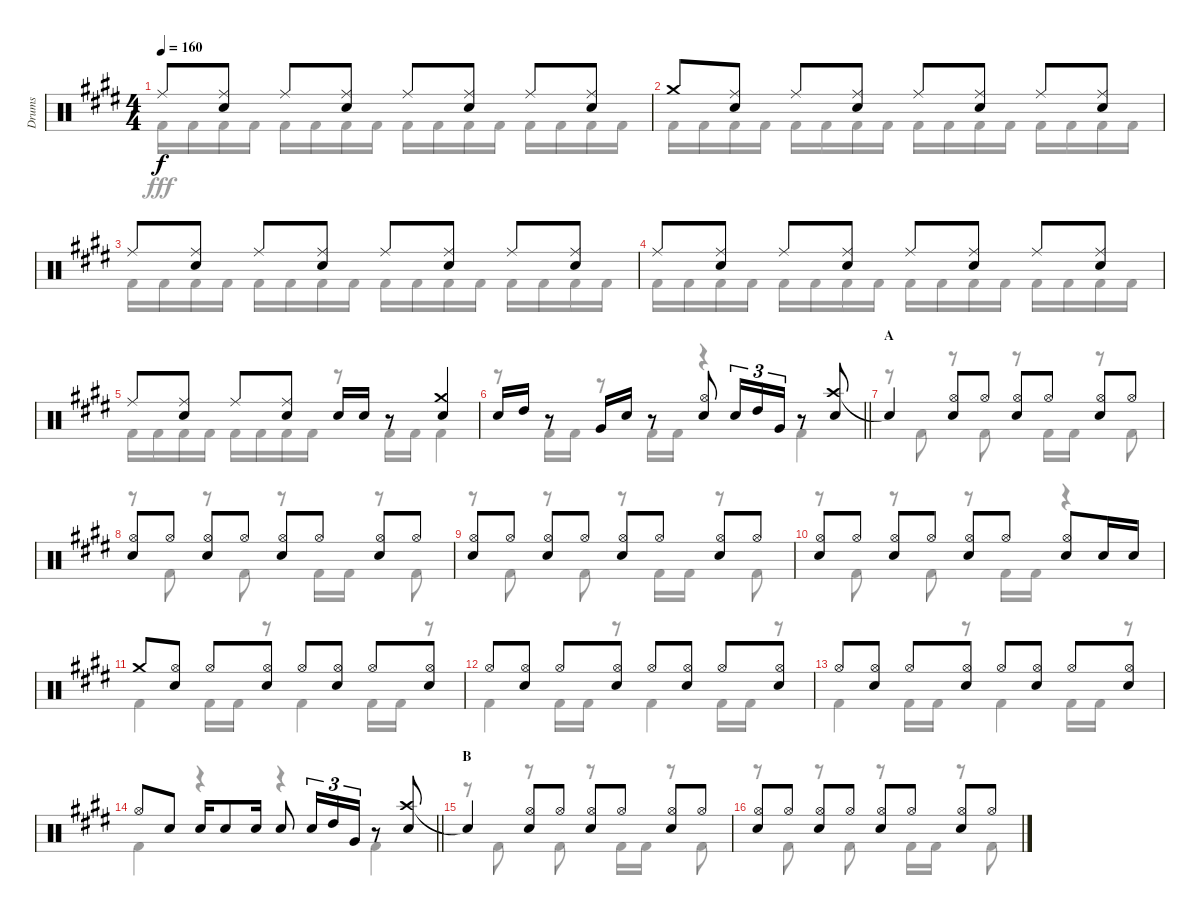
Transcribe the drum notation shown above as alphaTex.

\track ("Drums" "Drums") {instrument percussion}
\staff {score}
\articulation defaults
\voice
\ts (4 4)
\tempo 160
\clef neutral
\ks e "Ride (middle)".8{dy f}
("Ride (middle)" "Snare (hit) 2").8 "Ride (middle)".8 ("Ride (middle)" "Snare (hit) 2").8 "Ride (middle)".8 ("Ride (middle)" "Snare (hit) 2").8 "Ride (middle)".8 ("Ride (middle)" "Snare (hit) 2").8 |
"Crash medium (hit)".8 ("Ride (middle)" "Snare (hit) 2").8 "Ride (middle)".8 ("Ride (middle)" "Snare (hit) 2").8 "Ride (middle)".8 ("Ride (middle)" "Snare (hit) 2").8 "Ride (middle)".8 ("Ride (middle)" "Snare (hit) 2").8 |
"Ride (middle)".8 ("Ride (middle)" "Snare (hit) 2").8 "Ride (middle)".8 ("Ride (middle)" "Snare (hit) 2").8 "Ride (middle)".8 ("Ride (middle)" "Snare (hit) 2").8 "Ride (middle)".8 ("Ride (middle)" "Snare (hit) 2").8 |
"Ride (middle)".8 ("Ride (middle)" "Snare (hit) 2").8 "Ride (middle)".8 ("Ride (middle)" "Snare (hit) 2").8 "Ride (middle)".8 ("Ride (middle)" "Snare (hit) 2").8 "Ride (middle)".8 ("Ride (middle)" "Snare (hit) 2").8 |
"Ride (middle)".8 ("Ride (middle)" "Snare (hit) 2").8 "Ride (middle)".8 ("Ride (middle)" "Snare (hit) 2").8 "Snare (hit) 2".16 "Snare (hit) 2".16 r.8 ("Crash medium (hit)" "Snare (hit) 2").4 |
\barLineRight lightlight "Snare (hit) 2".16 "High Tom (hit)".16
r.8 "Very Low Tom (hit)".16 "Snare (hit) 2".16 r.8 ("Hi-Hat (open)" "Snare (hit) 2").8 "Snare (hit) 2".16{tu (3 2)} "High Tom (hit)".16{tu (3 2)} "Very Low Tom (hit)".16{tu (3 2)} r.8 ("Crash high (hit)" "Snare (hit) 2").8 |
\section ("" "A")
"Snare (hit)"{t}.4 ("Hi-Hat (open)" "Snare (hit) 2").8 "Hi-Hat (open)".8 ("Hi-Hat (open)" "Snare (hit) 2").8 "Hi-Hat (open)".8 ("Hi-Hat (open)" "Snare (hit) 2").8 "Hi-Hat (open)".8 |
("Hi-Hat (open)" "Snare (hit) 2").8 "Hi-Hat (open)".8 ("Hi-Hat (open)" "Snare (hit) 2").8 "Hi-Hat (open)".8 ("Hi-Hat (open)" "Snare (hit) 2").8 "Hi-Hat (open)".8 ("Hi-Hat (open)" "Snare (hit) 2").8 "Hi-Hat (open)".8 |
("Hi-Hat (open)" "Snare (hit) 2").8 "Hi-Hat (open)".8 ("Hi-Hat (open)" "Snare (hit) 2").8 "Hi-Hat (open)".8 ("Hi-Hat (open)" "Snare (hit) 2").8 "Hi-Hat (open)".8 ("Hi-Hat (open)" "Snare (hit) 2").8 "Hi-Hat (open)".8 |
("Hi-Hat (open)" "Snare (hit) 2").8 "Hi-Hat (open)".8 ("Hi-Hat (open)" "Snare (hit) 2").8 "Hi-Hat (open)".8 ("Hi-Hat (open)" "Snare (hit) 2").8 "Hi-Hat (open)".8 ("Hi-Hat (open)" "Snare (hit) 2").8 "Snare (hit) 2".16 "Snare (hit) 2".16 |
"Crash medium (hit)".8 ("Hi-Hat (open)" "Snare (hit) 2").8 "Hi-Hat (open)".8 ("Hi-Hat (open)" "Snare (hit) 2").8 "Hi-Hat (open)".8 ("Hi-Hat (open)" "Snare (hit) 2").8 "Hi-Hat (open)".8 ("Hi-Hat (open)" "Snare (hit) 2").8 |
"Hi-Hat (open)".8 ("Hi-Hat (open)" "Snare (hit) 2").8 "Hi-Hat (open)".8 ("Hi-Hat (open)" "Snare (hit) 2").8 "Hi-Hat (open)".8 ("Hi-Hat (open)" "Snare (hit) 2").8 "Hi-Hat (open)".8 ("Hi-Hat (open)" "Snare (hit) 2").8 |
"Hi-Hat (open)".8 ("Hi-Hat (open)" "Snare (hit) 2").8 "Hi-Hat (open)".8 ("Hi-Hat (open)" "Snare (hit) 2").8 "Hi-Hat (open)".8 ("Hi-Hat (open)" "Snare (hit) 2").8 "Hi-Hat (open)".8 ("Hi-Hat (open)" "Snare (hit) 2").8 |
\barLineRight lightlight "Hi-Hat (open)".8 "Snare (hit) 2".8 "Snare (hit) 2".16 "Snare (hit) 2".8 "Snare (hit) 2".16 "Snare (hit) 2".8 "Snare (hit) 2".16{tu (3 2)} "High Tom (hit)".16{tu (3 2)} "Very Low Tom (hit)".16{tu (3 2)}
r.8 ("Crash high (hit)" "Snare (hit) 2").8 |
\section ("" "B")
"Snare (hit)"{t}.4 ("Hi-Hat (open)" "Snare (hit) 2").8 "Hi-Hat (open)".8 ("Hi-Hat (open)" "Snare (hit) 2").8 "Hi-Hat (open)".8 ("Hi-Hat (open)" "Snare (hit) 2").8 "Hi-Hat (open)".8 |
("Hi-Hat (open)" "Snare (hit) 2").8 "Hi-Hat (open)".8 ("Hi-Hat (open)" "Snare (hit) 2").8 "Hi-Hat (open)".8 ("Hi-Hat (open)" "Snare (hit) 2").8 "Hi-Hat (open)".8 ("Hi-Hat (open)" "Snare (hit) 2").8 "Hi-Hat (open)".8
\voice
\clef neutral
\ottava regular
\simile none
\ks e "Kick (hit) 2".16{dy fff} "Kick (hit) 2".16 "Kick (hit) 2".16 "Kick (hit) 2".16 "Kick (hit) 2".16 "Kick (hit) 2".16 "Kick (hit) 2".16 "Kick (hit) 2".16 "Kick (hit) 2".16 "Kick (hit) 2".16 "Kick (hit) 2".16 "Kick (hit) 2".16 "Kick (hit) 2".16 "Kick (hit) 2".16 "Kick (hit) 2".16 "Kick (hit) 2".16
|
"Kick (hit) 2".16 "Kick (hit) 2".16 "Kick (hit) 2".16 "Kick (hit) 2".16 "Kick (hit) 2".16 "Kick (hit) 2".16 "Kick (hit) 2".16 "Kick (hit) 2".16 "Kick (hit) 2".16 "Kick (hit) 2".16 "Kick (hit) 2".16 "Kick (hit) 2".16 "Kick (hit) 2".16 "Kick (hit) 2".16 "Kick (hit) 2".16 "Kick (hit) 2".16 |
"Kick (hit) 2".16 "Kick (hit) 2".16 "Kick (hit) 2".16 "Kick (hit) 2".16 "Kick (hit) 2".16 "Kick (hit) 2".16 "Kick (hit) 2".16 "Kick (hit) 2".16 "Kick (hit) 2".16 "Kick (hit) 2".16 "Kick (hit) 2".16 "Kick (hit) 2".16 "Kick (hit) 2".16 "Kick (hit) 2".16 "Kick (hit) 2".16 "Kick (hit) 2".16 |
"Kick (hit) 2".16 "Kick (hit) 2".16 "Kick (hit) 2".16 "Kick (hit) 2".16 "Kick (hit) 2".16 "Kick (hit) 2".16 "Kick (hit) 2".16 "Kick (hit) 2".16 "Kick (hit) 2".16 "Kick (hit) 2".16 "Kick (hit) 2".16 "Kick (hit) 2".16 "Kick (hit) 2".16 "Kick (hit) 2".16 "Kick (hit) 2".16 "Kick (hit) 2".16 |
"Kick (hit) 2".16 "Kick (hit) 2".16 "Kick (hit) 2".16 "Kick (hit) 2".16 "Kick (hit) 2".16 "Kick (hit) 2".16 "Kick (hit) 2".16 "Kick (hit) 2".16 r.8 "Kick (hit) 2".16 "Kick (hit) 2".16 "Kick (hit) 2".4 |
\barLineRight lightlight
r.8 "Kick (hit) 2".16 "Kick (hit) 2".16 r.8 "Kick (hit) 2".16 "Kick (hit) 2".16 r.4 "Kick (hit) 2".4 |
r.8 "Kick (hit) 2".8 r.8 "Kick (hit) 2".8 r.8 "Kick (hit) 2".16 "Kick (hit) 2".16 r.8 "Kick (hit) 2".8 |
r.8 "Kick (hit) 2".8 r.8 "Kick (hit) 2".8 r.8 "Kick (hit) 2".16 "Kick (hit) 2".16 r.8 "Kick (hit) 2".8 |
r.8 "Kick (hit) 2".8 r.8 "Kick (hit) 2".8 r.8 "Kick (hit) 2".16 "Kick (hit) 2".16 r.8 "Kick (hit) 2".8 |
r.8 "Kick (hit) 2".8 r.8 "Kick (hit) 2".8 r.8 "Kick (hit) 2".16 "Kick (hit) 2".16 r.4 |
"Kick (hit) 2".4 "Kick (hit) 2".16 "Kick (hit) 2".16 r.8 "Kick (hit) 2".4 "Kick (hit) 2".16 "Kick (hit) 2".16 r.8 |
"Kick (hit) 2".4 "Kick (hit) 2".16 "Kick (hit) 2".16 r.8 "Kick (hit) 2".4 "Kick (hit) 2".16 "Kick (hit) 2".16 r.8 |
"Kick (hit) 2".4 "Kick (hit) 2".16 "Kick (hit) 2".16 r.8 "Kick (hit) 2".4 "Kick (hit) 2".16 "Kick (hit) 2".16 r.8 |
\barLineRight lightlight "Kick (hit) 2".4
r.4 r.4 "Kick (hit) 2".4 |
r.8 "Kick (hit) 2".8 r.8 "Kick (hit) 2".8 r.8 "Kick (hit) 2".16 "Kick (hit) 2".16 r.8 "Kick (hit) 2".8 |
r.8 "Kick (hit) 2".8 r.8 "Kick (hit) 2".8 r.8 "Kick (hit) 2".16 "Kick (hit) 2".16 r.8 "Kick (hit) 2".8
